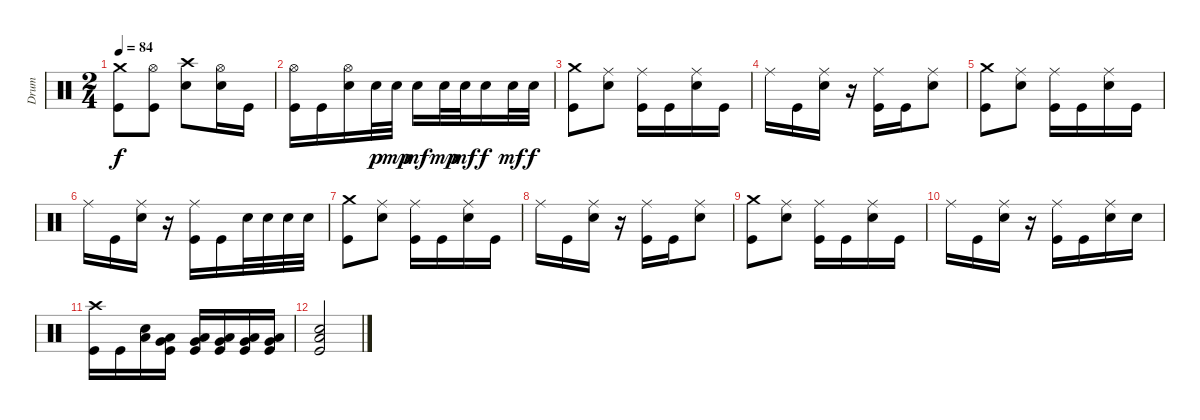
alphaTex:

\track ("Drum" "Drum") {instrument percussion}
\staff {score}
\articulation defaults
\ts (2 4)
\tempo 84
\clef neutral
\ks c
("Crash medium (hit)" "Kick (hit)").8{dy f} ("Hi-Hat (open)" "Kick (hit)").8 ("Crash high (hit)" "Electric Snare (hit)").8 ("Hi-Hat (open)" "Electric Snare (hit)").16 "Kick (hit)".16 |
("Hi-Hat (open)" "Kick (hit)").16 "Kick (hit)".16 ("Hi-Hat (open)" "Electric Snare (hit)").16 "Electric Snare (hit)".32{dy p} "Electric Snare (hit)".32{dy mp} "Electric Snare (hit)".16{dy mf} "Electric Snare (hit)".32{dy mp} "Electric Snare (hit)".32{dy mf} "Electric Snare (hit)".16{dy f} "Electric Snare (hit)".32{dy mf} "Electric Snare (hit)".32{dy f} |
("Crash medium (hit)" "Kick (hit)").8 ("Ride (middle)" "Electric Snare (hit)").8 ("Ride (middle)" "Kick (hit)").16 "Kick (hit)".16 ("Ride (middle)" "Electric Snare (hit)").16 "Kick (hit)".16 |
"Ride (middle)".16 "Kick (hit)".16 ("Ride (middle)" "Electric Snare (hit)").16 r.16 ("Ride (middle)" "Kick (hit)").16 "Kick (hit)".16 ("Ride (middle)" "Electric Snare (hit)").8 |
("Crash medium (hit)" "Kick (hit)").8 ("Ride (middle)" "Electric Snare (hit)").8 ("Ride (middle)" "Kick (hit)").16 "Kick (hit)".16 ("Ride (middle)" "Electric Snare (hit)").16 "Kick (hit)".16 |
"Ride (middle)".16 "Kick (hit)".16 ("Ride (middle)" "Electric Snare (hit)").16 r.16 ("Ride (middle)" "Kick (hit)").16 "Kick (hit)".16 "Electric Snare (hit)".32 "Electric Snare (hit)".32 "Electric Snare (hit)".32 "Electric Snare (hit)".32 |
("Crash medium (hit)" "Kick (hit)").8 ("Ride (middle)" "Electric Snare (hit)").8 ("Ride (middle)" "Kick (hit)").16 "Kick (hit)".16 ("Ride (middle)" "Electric Snare (hit)").16 "Kick (hit)".16 |
"Ride (middle)".16 "Kick (hit)".16 ("Ride (middle)" "Electric Snare (hit)").16 r.16 ("Ride (middle)" "Kick (hit)").16 "Kick (hit)".16 ("Ride (middle)" "Electric Snare (hit)").8 |
("Crash medium (hit)" "Kick (hit)").8 ("Ride (middle)" "Electric Snare (hit)").8 ("Ride (middle)" "Kick (hit)").16 "Kick (hit)".16 ("Ride (middle)" "Electric Snare (hit)").16 "Kick (hit)".16 |
"Ride (middle)".16 "Kick (hit)".16 ("Ride (middle)" "Electric Snare (hit)").16 r.16 ("Ride (middle)" "Kick (hit)").16 "Kick (hit)".16 ("Ride (middle)" "Electric Snare (hit)").16 "Electric Snare (hit)".16 |
("Crash high (hit)" "Kick (hit)").16 "Kick (hit)".16 ("Low Tom (hit)" "Electric Snare (hit)").16 ("Low Tom (hit)" "Very Low Tom (hit)" "Kick (hit)").16 ("Low Tom (hit)" "Very Low Tom (hit)" "Kick (hit)").16 ("Very Low Tom (hit)" "Low Floor Tom (hit)" "Kick (hit)").16 ("Very Low Tom (hit)" "Low Floor Tom (hit)" "Kick (hit)").16 ("Very Low Tom (hit)" "Low Floor Tom (hit)" "Kick (hit)").16 |
("Low Floor Tom (hit)" "Electric Snare (hit)" "Kick (hit)").2
